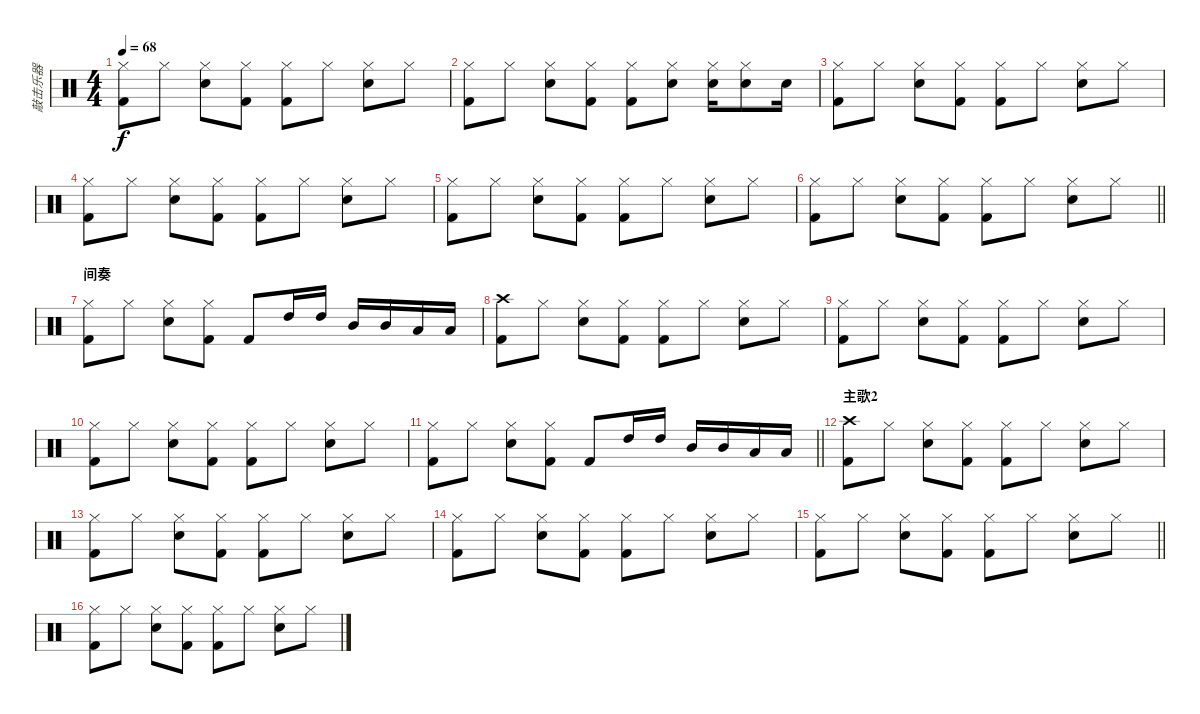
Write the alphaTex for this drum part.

\track ("敲击乐器" "敲击乐器") {instrument percussion}
\staff {score}
\articulation defaults
\ts (4 4)
\tempo 68
\clef neutral
\ks c
("Hi-Hat (closed)" "Kick (hit) 2").8{dy f} "Hi-Hat (closed)".8 ("Hi-Hat (closed)" "Snare (hit) 2").8 ("Hi-Hat (closed)" "Kick (hit) 2").8 ("Hi-Hat (closed)" "Kick (hit) 2").8 "Hi-Hat (closed)".8 ("Hi-Hat (closed)" "Snare (hit) 2").8 "Hi-Hat (closed)".8 |
("Hi-Hat (closed)" "Kick (hit) 2").8 "Hi-Hat (closed)".8 ("Hi-Hat (closed)" "Snare (hit) 2").8 ("Hi-Hat (closed)" "Kick (hit) 2").8 ("Hi-Hat (closed)" "Kick (hit) 2").8 ("Hi-Hat (closed)" "Snare (hit) 2").8 ("Hi-Hat (closed)" "Snare (hit) 2").16 ("Hi-Hat (closed)" "Snare (hit) 2").8 "Snare (hit) 2".16 |
("Hi-Hat (closed)" "Kick (hit) 2").8 "Hi-Hat (closed)".8 ("Hi-Hat (closed)" "Snare (hit) 2").8 ("Hi-Hat (closed)" "Kick (hit) 2").8 ("Hi-Hat (closed)" "Kick (hit) 2").8 "Hi-Hat (closed)".8 ("Hi-Hat (closed)" "Snare (hit) 2").8 "Hi-Hat (closed)".8 |
("Hi-Hat (closed)" "Kick (hit) 2").8 "Hi-Hat (closed)".8 ("Hi-Hat (closed)" "Snare (hit) 2").8 ("Hi-Hat (closed)" "Kick (hit) 2").8 ("Hi-Hat (closed)" "Kick (hit) 2").8 "Hi-Hat (closed)".8 ("Hi-Hat (closed)" "Snare (hit) 2").8 "Hi-Hat (closed)".8 |
("Hi-Hat (closed)" "Kick (hit) 2").8 "Hi-Hat (closed)".8 ("Hi-Hat (closed)" "Snare (hit) 2").8 ("Hi-Hat (closed)" "Kick (hit) 2").8 ("Hi-Hat (closed)" "Kick (hit) 2").8 "Hi-Hat (closed)".8 ("Hi-Hat (closed)" "Snare (hit) 2").8 "Hi-Hat (closed)".8 |
\barLineRight lightlight
("Hi-Hat (closed)" "Kick (hit) 2").8 "Hi-Hat (closed)".8 ("Hi-Hat (closed)" "Snare (hit) 2").8 ("Hi-Hat (closed)" "Kick (hit) 2").8 ("Hi-Hat (closed)" "Kick (hit) 2").8 "Hi-Hat (closed)".8 ("Hi-Hat (closed)" "Snare (hit) 2").8 "Hi-Hat (closed)".8 |
\section ("" "间奏")
("Hi-Hat (closed)" "Kick (hit) 2").8 "Hi-Hat (closed)".8 ("Hi-Hat (closed)" "Snare (hit) 2").8 ("Hi-Hat (closed)" "Kick (hit) 2").8 "Kick (hit) 2".8 "High Tom (hit)".16 "High Tom (hit)".16 "Mid Tom (hit)".16 "Mid Tom (hit)".16 "Low Tom (hit)".16 "Low Tom (hit)".16 |
("Crash high (hit)" "Kick (hit) 2").8 "Hi-Hat (closed)".8 ("Hi-Hat (closed)" "Snare (hit) 2").8 ("Hi-Hat (closed)" "Kick (hit) 2").8 ("Hi-Hat (closed)" "Kick (hit) 2").8 "Hi-Hat (closed)".8 ("Hi-Hat (closed)" "Snare (hit) 2").8 "Hi-Hat (closed)".8 |
("Hi-Hat (closed)" "Kick (hit) 2").8 "Hi-Hat (closed)".8 ("Hi-Hat (closed)" "Snare (hit) 2").8 ("Hi-Hat (closed)" "Kick (hit) 2").8 ("Hi-Hat (closed)" "Kick (hit) 2").8 "Hi-Hat (closed)".8 ("Hi-Hat (closed)" "Snare (hit) 2").8 "Hi-Hat (closed)".8 |
("Hi-Hat (closed)" "Kick (hit) 2").8 "Hi-Hat (closed)".8 ("Hi-Hat (closed)" "Snare (hit) 2").8 ("Hi-Hat (closed)" "Kick (hit) 2").8 ("Hi-Hat (closed)" "Kick (hit) 2").8 "Hi-Hat (closed)".8 ("Hi-Hat (closed)" "Snare (hit) 2").8 "Hi-Hat (closed)".8 |
\barLineRight lightlight
("Hi-Hat (closed)" "Kick (hit) 2").8 "Hi-Hat (closed)".8 ("Hi-Hat (closed)" "Snare (hit) 2").8 ("Hi-Hat (closed)" "Kick (hit) 2").8 "Kick (hit) 2".8 "High Tom (hit)".16 "High Tom (hit)".16 "Mid Tom (hit)".16 "Mid Tom (hit)".16 "Low Tom (hit)".16 "Low Tom (hit)".16 |
\section ("" "主歌2")
("Crash high (hit)" "Kick (hit) 2").8 "Hi-Hat (closed)".8 ("Hi-Hat (closed)" "Snare (hit) 2").8 ("Hi-Hat (closed)" "Kick (hit) 2").8 ("Hi-Hat (closed)" "Kick (hit) 2").8 "Hi-Hat (closed)".8 ("Hi-Hat (closed)" "Snare (hit) 2").8 "Hi-Hat (closed)".8 |
("Hi-Hat (closed)" "Kick (hit) 2").8 "Hi-Hat (closed)".8 ("Hi-Hat (closed)" "Snare (hit) 2").8 ("Hi-Hat (closed)" "Kick (hit) 2").8 ("Hi-Hat (closed)" "Kick (hit) 2").8 "Hi-Hat (closed)".8 ("Hi-Hat (closed)" "Snare (hit) 2").8 "Hi-Hat (closed)".8 |
("Hi-Hat (closed)" "Kick (hit) 2").8 "Hi-Hat (closed)".8 ("Hi-Hat (closed)" "Snare (hit) 2").8 ("Hi-Hat (closed)" "Kick (hit) 2").8 ("Hi-Hat (closed)" "Kick (hit) 2").8 "Hi-Hat (closed)".8 ("Hi-Hat (closed)" "Snare (hit) 2").8 "Hi-Hat (closed)".8 |
\barLineRight lightlight
("Hi-Hat (closed)" "Kick (hit) 2").8 "Hi-Hat (closed)".8 ("Hi-Hat (closed)" "Snare (hit) 2").8 ("Hi-Hat (closed)" "Kick (hit) 2").8 ("Hi-Hat (closed)" "Kick (hit) 2").8 "Hi-Hat (closed)".8 ("Hi-Hat (closed)" "Snare (hit) 2").8 "Hi-Hat (closed)".8 |
("Hi-Hat (closed)" "Kick (hit) 2").8 "Hi-Hat (closed)".8 ("Hi-Hat (closed)" "Snare (hit) 2").8 ("Hi-Hat (closed)" "Kick (hit) 2").8 ("Hi-Hat (closed)" "Kick (hit) 2").8 "Hi-Hat (closed)".8 ("Hi-Hat (closed)" "Snare (hit) 2").8 "Hi-Hat (closed)".8
